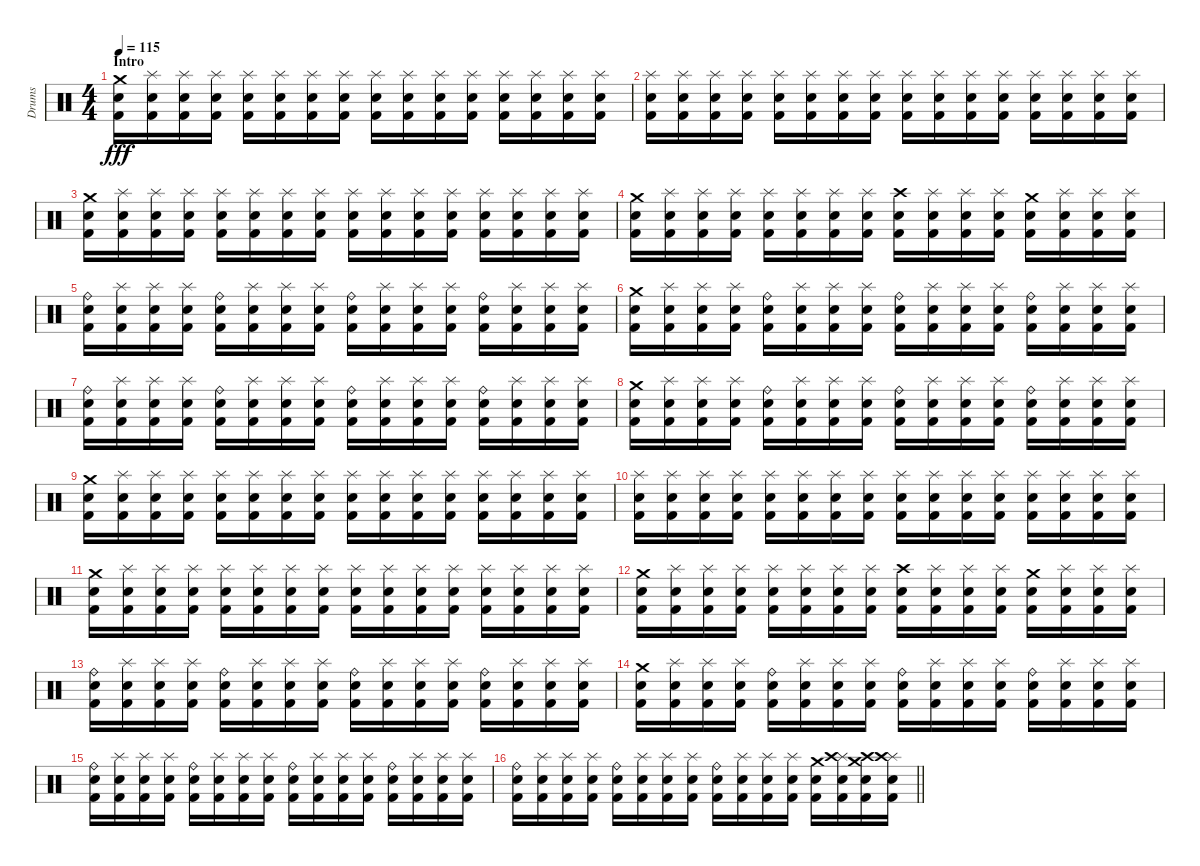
\track ("Drums" "Drums") {instrument percussion}
\staff {score}
\articulation defaults
\ts (4 4)
\section ("" "Intro")
\tempo 115
\clef neutral
\ks c
("Kick (hit) 2" "Electric Snare (hit)" "Crash medium (hit)").16{dy fff} ("Kick (hit) 2" "Electric Snare (hit)" "Splash (hit)").16 ("Kick (hit) 2" "Electric Snare (hit)" "Splash (hit)").16 ("Kick (hit) 2" "Electric Snare (hit)" "Splash (hit)").16 ("Kick (hit) 2" "Electric Snare (hit)" "Splash (hit)").16 ("Kick (hit) 2" "Electric Snare (hit)" "Splash (hit)").16 ("Kick (hit) 2" "Electric Snare (hit)" "Splash (hit)").16 ("Kick (hit) 2" "Electric Snare (hit)" "Splash (hit)").16 ("Kick (hit) 2" "Electric Snare (hit)" "Splash (hit)").16 ("Kick (hit) 2" "Electric Snare (hit)" "Splash (hit)").16 ("Kick (hit) 2" "Electric Snare (hit)" "Splash (hit)").16 ("Kick (hit) 2" "Electric Snare (hit)" "Splash (hit)").16 ("Kick (hit) 2" "Electric Snare (hit)" "Splash (hit)").16 ("Kick (hit) 2" "Electric Snare (hit)" "Splash (hit)").16 ("Kick (hit) 2" "Electric Snare (hit)" "Splash (hit)").16 ("Kick (hit) 2" "Electric Snare (hit)" "Splash (hit)").16 |
("Kick (hit) 2" "Electric Snare (hit)" "Splash (hit)").16 ("Kick (hit) 2" "Electric Snare (hit)" "Splash (hit)").16 ("Kick (hit) 2" "Electric Snare (hit)" "Splash (hit)").16 ("Kick (hit) 2" "Electric Snare (hit)" "Splash (hit)").16 ("Kick (hit) 2" "Electric Snare (hit)" "Splash (hit)").16 ("Kick (hit) 2" "Electric Snare (hit)" "Splash (hit)").16 ("Kick (hit) 2" "Electric Snare (hit)" "Splash (hit)").16 ("Kick (hit) 2" "Electric Snare (hit)" "Splash (hit)").16 ("Kick (hit) 2" "Electric Snare (hit)" "Splash (hit)").16 ("Kick (hit) 2" "Electric Snare (hit)" "Splash (hit)").16 ("Kick (hit) 2" "Electric Snare (hit)" "Splash (hit)").16 ("Kick (hit) 2" "Electric Snare (hit)" "Splash (hit)").16 ("Kick (hit) 2" "Electric Snare (hit)" "Splash (hit)").16 ("Kick (hit) 2" "Electric Snare (hit)" "Splash (hit)").16 ("Kick (hit) 2" "Electric Snare (hit)" "Splash (hit)").16 ("Kick (hit) 2" "Electric Snare (hit)" "Splash (hit)").16 |
("Kick (hit) 2" "Electric Snare (hit)" "Crash medium (hit)").16 ("Kick (hit) 2" "Electric Snare (hit)" "Splash (hit)").16 ("Kick (hit) 2" "Electric Snare (hit)" "Splash (hit)").16 ("Kick (hit) 2" "Electric Snare (hit)" "Splash (hit)").16 ("Kick (hit) 2" "Electric Snare (hit)" "Splash (hit)").16 ("Kick (hit) 2" "Electric Snare (hit)" "Splash (hit)").16 ("Kick (hit) 2" "Electric Snare (hit)" "Splash (hit)").16 ("Kick (hit) 2" "Electric Snare (hit)" "Splash (hit)").16 ("Kick (hit) 2" "Electric Snare (hit)" "Splash (hit)").16 ("Kick (hit) 2" "Electric Snare (hit)" "Splash (hit)").16 ("Kick (hit) 2" "Electric Snare (hit)" "Splash (hit)").16 ("Kick (hit) 2" "Electric Snare (hit)" "Splash (hit)").16 ("Kick (hit) 2" "Electric Snare (hit)" "Splash (hit)").16 ("Kick (hit) 2" "Electric Snare (hit)" "Splash (hit)").16 ("Kick (hit) 2" "Electric Snare (hit)" "Splash (hit)").16 ("Kick (hit) 2" "Electric Snare (hit)" "Splash (hit)").16 |
("Kick (hit) 2" "Electric Snare (hit)" "Crash medium (hit)").16 ("Kick (hit) 2" "Electric Snare (hit)" "Splash (hit)").16 ("Kick (hit) 2" "Electric Snare (hit)" "Splash (hit)").16 ("Kick (hit) 2" "Electric Snare (hit)" "Splash (hit)").16 ("Kick (hit) 2" "Electric Snare (hit)" "Splash (hit)").16 ("Kick (hit) 2" "Electric Snare (hit)" "Splash (hit)").16 ("Kick (hit) 2" "Electric Snare (hit)" "Splash (hit)").16 ("Kick (hit) 2" "Electric Snare (hit)" "Splash (hit)").16 ("Kick (hit) 2" "Electric Snare (hit)" "Crash high (hit)").16 ("Kick (hit) 2" "Electric Snare (hit)" "Splash (hit)").16 ("Kick (hit) 2" "Electric Snare (hit)" "Splash (hit)").16 ("Kick (hit) 2" "Electric Snare (hit)" "Splash (hit)").16 ("Kick (hit) 2" "Electric Snare (hit)" "Crash medium (hit)").16 ("Kick (hit) 2" "Electric Snare (hit)" "Splash (hit)").16 ("Kick (hit) 2" "Electric Snare (hit)" "Splash (hit)").16 ("Kick (hit) 2" "Electric Snare (hit)" "Splash (hit)").16 |
("Kick (hit) 2" "Electric Snare (hit)" "Ride (bell)").16 ("Kick (hit) 2" "Electric Snare (hit)" "Splash (hit)").16 ("Kick (hit) 2" "Electric Snare (hit)" "Splash (hit)").16 ("Kick (hit) 2" "Electric Snare (hit)" "Splash (hit)").16 ("Kick (hit) 2" "Electric Snare (hit)" "Ride (bell)").16 ("Kick (hit) 2" "Electric Snare (hit)" "Splash (hit)").16 ("Kick (hit) 2" "Electric Snare (hit)" "Splash (hit)").16 ("Kick (hit) 2" "Electric Snare (hit)" "Splash (hit)").16 ("Kick (hit) 2" "Electric Snare (hit)" "Ride (bell)").16 ("Kick (hit) 2" "Electric Snare (hit)" "Splash (hit)").16 ("Kick (hit) 2" "Electric Snare (hit)" "Splash (hit)").16 ("Kick (hit) 2" "Electric Snare (hit)" "Splash (hit)").16 ("Kick (hit) 2" "Electric Snare (hit)" "Ride (bell)").16 ("Kick (hit) 2" "Electric Snare (hit)" "Splash (hit)").16 ("Kick (hit) 2" "Electric Snare (hit)" "Splash (hit)").16 ("Kick (hit) 2" "Electric Snare (hit)" "Splash (hit)").16 |
("Kick (hit) 2" "Electric Snare (hit)" "Crash medium (hit)").16 ("Kick (hit) 2" "Electric Snare (hit)" "Splash (hit)").16 ("Kick (hit) 2" "Electric Snare (hit)" "Splash (hit)").16 ("Kick (hit) 2" "Electric Snare (hit)" "Splash (hit)").16 ("Kick (hit) 2" "Electric Snare (hit)" "Ride (bell)").16 ("Kick (hit) 2" "Electric Snare (hit)" "Splash (hit)").16 ("Kick (hit) 2" "Electric Snare (hit)" "Splash (hit)").16 ("Kick (hit) 2" "Electric Snare (hit)" "Splash (hit)").16 ("Kick (hit) 2" "Electric Snare (hit)" "Ride (bell)").16 ("Kick (hit) 2" "Electric Snare (hit)" "Splash (hit)").16 ("Kick (hit) 2" "Electric Snare (hit)" "Splash (hit)").16 ("Kick (hit) 2" "Electric Snare (hit)" "Splash (hit)").16 ("Kick (hit) 2" "Electric Snare (hit)" "Ride (bell)").16 ("Kick (hit) 2" "Electric Snare (hit)" "Splash (hit)").16 ("Kick (hit) 2" "Electric Snare (hit)" "Splash (hit)").16 ("Kick (hit) 2" "Electric Snare (hit)" "Splash (hit)").16 |
("Kick (hit) 2" "Electric Snare (hit)" "Ride (bell)").16 ("Kick (hit) 2" "Electric Snare (hit)" "Splash (hit)").16 ("Kick (hit) 2" "Electric Snare (hit)" "Splash (hit)").16 ("Kick (hit) 2" "Electric Snare (hit)" "Splash (hit)").16 ("Kick (hit) 2" "Electric Snare (hit)" "Ride (bell)").16 ("Kick (hit) 2" "Electric Snare (hit)" "Splash (hit)").16 ("Kick (hit) 2" "Electric Snare (hit)" "Splash (hit)").16 ("Kick (hit) 2" "Electric Snare (hit)" "Splash (hit)").16 ("Kick (hit) 2" "Electric Snare (hit)" "Ride (bell)").16 ("Kick (hit) 2" "Electric Snare (hit)" "Splash (hit)").16 ("Kick (hit) 2" "Electric Snare (hit)" "Splash (hit)").16 ("Kick (hit) 2" "Electric Snare (hit)" "Splash (hit)").16 ("Kick (hit) 2" "Electric Snare (hit)" "Ride (bell)").16 ("Kick (hit) 2" "Electric Snare (hit)" "Splash (hit)").16 ("Kick (hit) 2" "Electric Snare (hit)" "Splash (hit)").16 ("Kick (hit) 2" "Electric Snare (hit)" "Splash (hit)").16 |
("Kick (hit) 2" "Electric Snare (hit)" "Crash medium (hit)").16 ("Kick (hit) 2" "Electric Snare (hit)" "Splash (hit)").16 ("Kick (hit) 2" "Electric Snare (hit)" "Splash (hit)").16 ("Kick (hit) 2" "Electric Snare (hit)" "Splash (hit)").16 ("Kick (hit) 2" "Electric Snare (hit)" "Ride (bell)").16 ("Kick (hit) 2" "Electric Snare (hit)" "Splash (hit)").16 ("Kick (hit) 2" "Electric Snare (hit)" "Splash (hit)").16 ("Kick (hit) 2" "Electric Snare (hit)" "Splash (hit)").16 ("Kick (hit) 2" "Electric Snare (hit)" "Ride (bell)").16 ("Kick (hit) 2" "Electric Snare (hit)" "Splash (hit)").16 ("Kick (hit) 2" "Electric Snare (hit)" "Splash (hit)").16 ("Kick (hit) 2" "Electric Snare (hit)" "Splash (hit)").16 ("Kick (hit) 2" "Electric Snare (hit)" "Ride (bell)").16 ("Kick (hit) 2" "Electric Snare (hit)" "Splash (hit)").16 ("Kick (hit) 2" "Electric Snare (hit)" "Splash (hit)").16 ("Kick (hit) 2" "Electric Snare (hit)" "Splash (hit)").16 |
("Kick (hit) 2" "Electric Snare (hit)" "Crash medium (hit)").16 ("Kick (hit) 2" "Electric Snare (hit)" "Splash (hit)").16 ("Kick (hit) 2" "Electric Snare (hit)" "Splash (hit)").16 ("Kick (hit) 2" "Electric Snare (hit)" "Splash (hit)").16 ("Kick (hit) 2" "Electric Snare (hit)" "Splash (hit)").16 ("Kick (hit) 2" "Electric Snare (hit)" "Splash (hit)").16 ("Kick (hit) 2" "Electric Snare (hit)" "Splash (hit)").16 ("Kick (hit) 2" "Electric Snare (hit)" "Splash (hit)").16 ("Kick (hit) 2" "Electric Snare (hit)" "Splash (hit)").16 ("Kick (hit) 2" "Electric Snare (hit)" "Splash (hit)").16 ("Kick (hit) 2" "Electric Snare (hit)" "Splash (hit)").16 ("Kick (hit) 2" "Electric Snare (hit)" "Splash (hit)").16 ("Kick (hit) 2" "Electric Snare (hit)" "Splash (hit)").16 ("Kick (hit) 2" "Electric Snare (hit)" "Splash (hit)").16 ("Kick (hit) 2" "Electric Snare (hit)" "Splash (hit)").16 ("Kick (hit) 2" "Electric Snare (hit)" "Splash (hit)").16 |
("Kick (hit) 2" "Electric Snare (hit)" "Splash (hit)").16 ("Kick (hit) 2" "Electric Snare (hit)" "Splash (hit)").16 ("Kick (hit) 2" "Electric Snare (hit)" "Splash (hit)").16 ("Kick (hit) 2" "Electric Snare (hit)" "Splash (hit)").16 ("Kick (hit) 2" "Electric Snare (hit)" "Splash (hit)").16 ("Kick (hit) 2" "Electric Snare (hit)" "Splash (hit)").16 ("Kick (hit) 2" "Electric Snare (hit)" "Splash (hit)").16 ("Kick (hit) 2" "Electric Snare (hit)" "Splash (hit)").16 ("Kick (hit) 2" "Electric Snare (hit)" "Splash (hit)").16 ("Kick (hit) 2" "Electric Snare (hit)" "Splash (hit)").16 ("Kick (hit) 2" "Electric Snare (hit)" "Splash (hit)").16 ("Kick (hit) 2" "Electric Snare (hit)" "Splash (hit)").16 ("Kick (hit) 2" "Electric Snare (hit)" "Splash (hit)").16 ("Kick (hit) 2" "Electric Snare (hit)" "Splash (hit)").16 ("Kick (hit) 2" "Electric Snare (hit)" "Splash (hit)").16 ("Kick (hit) 2" "Electric Snare (hit)" "Splash (hit)").16 |
("Kick (hit) 2" "Electric Snare (hit)" "Crash medium (hit)").16 ("Kick (hit) 2" "Electric Snare (hit)" "Splash (hit)").16 ("Kick (hit) 2" "Electric Snare (hit)" "Splash (hit)").16 ("Kick (hit) 2" "Electric Snare (hit)" "Splash (hit)").16 ("Kick (hit) 2" "Electric Snare (hit)" "Splash (hit)").16 ("Kick (hit) 2" "Electric Snare (hit)" "Splash (hit)").16 ("Kick (hit) 2" "Electric Snare (hit)" "Splash (hit)").16 ("Kick (hit) 2" "Electric Snare (hit)" "Splash (hit)").16 ("Kick (hit) 2" "Electric Snare (hit)" "Splash (hit)").16 ("Kick (hit) 2" "Electric Snare (hit)" "Splash (hit)").16 ("Kick (hit) 2" "Electric Snare (hit)" "Splash (hit)").16 ("Kick (hit) 2" "Electric Snare (hit)" "Splash (hit)").16 ("Kick (hit) 2" "Electric Snare (hit)" "Splash (hit)").16 ("Kick (hit) 2" "Electric Snare (hit)" "Splash (hit)").16 ("Kick (hit) 2" "Electric Snare (hit)" "Splash (hit)").16 ("Kick (hit) 2" "Electric Snare (hit)" "Splash (hit)").16 |
("Kick (hit) 2" "Electric Snare (hit)" "Crash medium (hit)").16 ("Kick (hit) 2" "Electric Snare (hit)" "Splash (hit)").16 ("Kick (hit) 2" "Electric Snare (hit)" "Splash (hit)").16 ("Kick (hit) 2" "Electric Snare (hit)" "Splash (hit)").16 ("Kick (hit) 2" "Electric Snare (hit)" "Splash (hit)").16 ("Kick (hit) 2" "Electric Snare (hit)" "Splash (hit)").16 ("Kick (hit) 2" "Electric Snare (hit)" "Splash (hit)").16 ("Kick (hit) 2" "Electric Snare (hit)" "Splash (hit)").16 ("Kick (hit) 2" "Electric Snare (hit)" "Crash high (hit)").16 ("Kick (hit) 2" "Electric Snare (hit)" "Splash (hit)").16 ("Kick (hit) 2" "Electric Snare (hit)" "Splash (hit)").16 ("Kick (hit) 2" "Electric Snare (hit)" "Splash (hit)").16 ("Kick (hit) 2" "Electric Snare (hit)" "Crash medium (hit)").16 ("Kick (hit) 2" "Electric Snare (hit)" "Splash (hit)").16 ("Kick (hit) 2" "Electric Snare (hit)" "Splash (hit)").16 ("Kick (hit) 2" "Electric Snare (hit)" "Splash (hit)").16 |
("Kick (hit) 2" "Electric Snare (hit)" "Ride (bell)").16 ("Kick (hit) 2" "Electric Snare (hit)" "Splash (hit)").16 ("Kick (hit) 2" "Electric Snare (hit)" "Splash (hit)").16 ("Kick (hit) 2" "Electric Snare (hit)" "Splash (hit)").16 ("Kick (hit) 2" "Electric Snare (hit)" "Ride (bell)").16 ("Kick (hit) 2" "Electric Snare (hit)" "Splash (hit)").16 ("Kick (hit) 2" "Electric Snare (hit)" "Splash (hit)").16 ("Kick (hit) 2" "Electric Snare (hit)" "Splash (hit)").16 ("Kick (hit) 2" "Electric Snare (hit)" "Ride (bell)").16 ("Kick (hit) 2" "Electric Snare (hit)" "Splash (hit)").16 ("Kick (hit) 2" "Electric Snare (hit)" "Splash (hit)").16 ("Kick (hit) 2" "Electric Snare (hit)" "Splash (hit)").16 ("Kick (hit) 2" "Electric Snare (hit)" "Ride (bell)").16 ("Kick (hit) 2" "Electric Snare (hit)" "Splash (hit)").16 ("Kick (hit) 2" "Electric Snare (hit)" "Splash (hit)").16 ("Kick (hit) 2" "Electric Snare (hit)" "Splash (hit)").16 |
("Kick (hit) 2" "Electric Snare (hit)" "Crash medium (hit)").16 ("Kick (hit) 2" "Electric Snare (hit)" "Splash (hit)").16 ("Kick (hit) 2" "Electric Snare (hit)" "Splash (hit)").16 ("Kick (hit) 2" "Electric Snare (hit)" "Splash (hit)").16 ("Kick (hit) 2" "Electric Snare (hit)" "Ride (bell)").16 ("Kick (hit) 2" "Electric Snare (hit)" "Splash (hit)").16 ("Kick (hit) 2" "Electric Snare (hit)" "Splash (hit)").16 ("Kick (hit) 2" "Electric Snare (hit)" "Splash (hit)").16 ("Kick (hit) 2" "Electric Snare (hit)" "Ride (bell)").16 ("Kick (hit) 2" "Electric Snare (hit)" "Splash (hit)").16 ("Kick (hit) 2" "Electric Snare (hit)" "Splash (hit)").16 ("Kick (hit) 2" "Electric Snare (hit)" "Splash (hit)").16 ("Kick (hit) 2" "Electric Snare (hit)" "Ride (bell)").16 ("Kick (hit) 2" "Electric Snare (hit)" "Splash (hit)").16 ("Kick (hit) 2" "Electric Snare (hit)" "Splash (hit)").16 ("Kick (hit) 2" "Electric Snare (hit)" "Splash (hit)").16 |
("Kick (hit) 2" "Electric Snare (hit)" "Ride (bell)").16 ("Kick (hit) 2" "Electric Snare (hit)" "Splash (hit)").16 ("Kick (hit) 2" "Electric Snare (hit)" "Splash (hit)").16 ("Kick (hit) 2" "Electric Snare (hit)" "Splash (hit)").16 ("Kick (hit) 2" "Electric Snare (hit)" "Ride (bell)").16 ("Kick (hit) 2" "Electric Snare (hit)" "Splash (hit)").16 ("Kick (hit) 2" "Electric Snare (hit)" "Splash (hit)").16 ("Kick (hit) 2" "Electric Snare (hit)" "Splash (hit)").16 ("Kick (hit) 2" "Electric Snare (hit)" "Ride (bell)").16 ("Kick (hit) 2" "Electric Snare (hit)" "Splash (hit)").16 ("Kick (hit) 2" "Electric Snare (hit)" "Splash (hit)").16 ("Kick (hit) 2" "Electric Snare (hit)" "Splash (hit)").16 ("Kick (hit) 2" "Electric Snare (hit)" "Ride (bell)").16 ("Kick (hit) 2" "Electric Snare (hit)" "Splash (hit)").16 ("Kick (hit) 2" "Electric Snare (hit)" "Splash (hit)").16 ("Kick (hit) 2" "Electric Snare (hit)" "Splash (hit)").16 |
\barLineRight lightlight
("Kick (hit) 2" "Electric Snare (hit)" "Ride (bell)").16 ("Kick (hit) 2" "Electric Snare (hit)" "Splash (hit)").16 ("Kick (hit) 2" "Electric Snare (hit)" "Splash (hit)").16 ("Kick (hit) 2" "Electric Snare (hit)" "Splash (hit)").16 ("Kick (hit) 2" "Electric Snare (hit)" "Ride (bell)").16 ("Kick (hit) 2" "Electric Snare (hit)" "Splash (hit)").16 ("Kick (hit) 2" "Electric Snare (hit)" "Splash (hit)").16 ("Kick (hit) 2" "Electric Snare (hit)" "Splash (hit)").16 ("Kick (hit) 2" "Electric Snare (hit)" "Ride (bell)").16 ("Kick (hit) 2" "Electric Snare (hit)" "Splash (hit)").16 ("Kick (hit) 2" "Electric Snare (hit)" "Splash (hit)").16 ("Kick (hit) 2" "Electric Snare (hit)" "Splash (hit)").16 ("Kick (hit) 2" "Electric Snare (hit)" "Crash medium (hit)").16 ("Kick (hit) 2" "Electric Snare (hit)" "Splash (hit)" "Crash high (hit)").16 ("Kick (hit) 2" "Electric Snare (hit)" "Crash high (hit)" "Crash medium (hit)").16 ("Kick (hit) 2" "Electric Snare (hit)" "Splash (hit)" "Crash high (hit)").16
